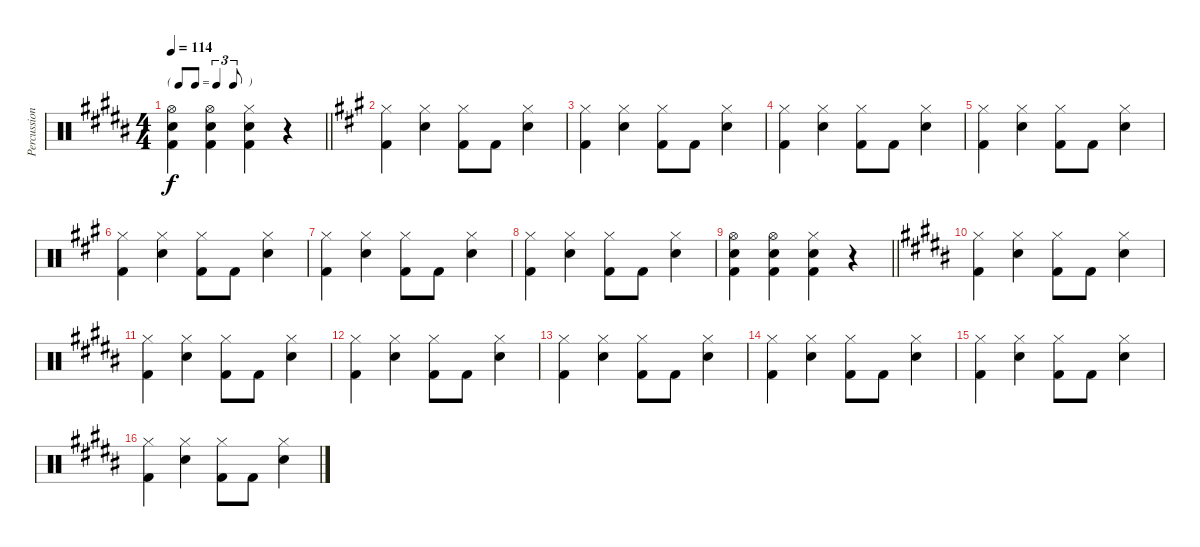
\track ("Percussion" "Percussion") {instrument percussion}
\staff {score}
\articulation defaults
\ts (4 4)
\tf triplet8th
\tempo 114
\clef neutral
\barLineRight lightlight
\ks b
("Hi-Hat (open)" "Kick (hit) 2" "Snare (hit) 2").4{dy f} ("Hi-Hat (open)" "Kick (hit) 2" "Snare (hit) 2").4 ("Hi-Hat (closed)" "Kick (hit) 2" "Snare (hit) 2").4 r.4 |
\ks a
("Hi-Hat (closed)" "Kick (hit) 2").4 ("Hi-Hat (closed)" "Snare (hit) 2").4 ("Hi-Hat (closed)" "Kick (hit) 2").8 "Kick (hit) 2".8 ("Hi-Hat (closed)" "Snare (hit) 2").4 |
("Hi-Hat (closed)" "Kick (hit) 2").4 ("Hi-Hat (closed)" "Snare (hit) 2").4 ("Hi-Hat (closed)" "Kick (hit) 2").8 "Kick (hit) 2".8 ("Hi-Hat (closed)" "Snare (hit) 2").4 |
("Hi-Hat (closed)" "Kick (hit) 2").4 ("Hi-Hat (closed)" "Snare (hit) 2").4 ("Hi-Hat (closed)" "Kick (hit) 2").8 "Kick (hit) 2".8 ("Hi-Hat (closed)" "Snare (hit) 2").4 |
("Hi-Hat (closed)" "Kick (hit) 2").4 ("Hi-Hat (closed)" "Snare (hit) 2").4 ("Hi-Hat (closed)" "Kick (hit) 2").8 "Kick (hit) 2".8 ("Hi-Hat (closed)" "Snare (hit) 2").4 |
("Hi-Hat (closed)" "Kick (hit) 2").4 ("Hi-Hat (closed)" "Snare (hit) 2").4 ("Hi-Hat (closed)" "Kick (hit) 2").8 "Kick (hit) 2".8 ("Hi-Hat (closed)" "Snare (hit) 2").4 |
("Hi-Hat (closed)" "Kick (hit) 2").4 ("Hi-Hat (closed)" "Snare (hit) 2").4 ("Hi-Hat (closed)" "Kick (hit) 2").8 "Kick (hit) 2".8 ("Hi-Hat (closed)" "Snare (hit) 2").4 |
("Hi-Hat (closed)" "Kick (hit) 2").4 ("Hi-Hat (closed)" "Snare (hit) 2").4 ("Hi-Hat (closed)" "Kick (hit) 2").8 "Kick (hit) 2".8 ("Hi-Hat (closed)" "Snare (hit) 2").4 |
\barLineRight lightlight
("Hi-Hat (open)" "Snare (hit) 2" "Kick (hit) 2").4 ("Hi-Hat (open)" "Snare (hit) 2" "Kick (hit) 2").4 ("Hi-Hat (closed)" "Snare (hit) 2" "Kick (hit) 2").4 r.4 |
\ks b
("Hi-Hat (closed)" "Kick (hit) 2").4 ("Hi-Hat (closed)" "Snare (hit) 2").4 ("Hi-Hat (closed)" "Kick (hit) 2").8 "Kick (hit) 2".8 ("Hi-Hat (closed)" "Snare (hit) 2").4 |
("Hi-Hat (closed)" "Kick (hit) 2").4 ("Hi-Hat (closed)" "Snare (hit) 2").4 ("Hi-Hat (closed)" "Kick (hit) 2").8 "Kick (hit) 2".8 ("Hi-Hat (closed)" "Snare (hit) 2").4 |
("Hi-Hat (closed)" "Kick (hit) 2").4 ("Hi-Hat (closed)" "Snare (hit) 2").4 ("Hi-Hat (closed)" "Kick (hit) 2").8 "Kick (hit) 2".8 ("Hi-Hat (closed)" "Snare (hit) 2").4 |
("Hi-Hat (closed)" "Kick (hit) 2").4 ("Hi-Hat (closed)" "Snare (hit) 2").4 ("Hi-Hat (closed)" "Kick (hit) 2").8 "Kick (hit) 2".8 ("Hi-Hat (closed)" "Snare (hit) 2").4 |
("Hi-Hat (closed)" "Kick (hit) 2").4 ("Hi-Hat (closed)" "Snare (hit) 2").4 ("Hi-Hat (closed)" "Kick (hit) 2").8 "Kick (hit) 2".8 ("Hi-Hat (closed)" "Snare (hit) 2").4 |
("Hi-Hat (closed)" "Kick (hit) 2").4 ("Hi-Hat (closed)" "Snare (hit) 2").4 ("Hi-Hat (closed)" "Kick (hit) 2").8 "Kick (hit) 2".8 ("Hi-Hat (closed)" "Snare (hit) 2").4 |
("Hi-Hat (closed)" "Kick (hit) 2").4 ("Hi-Hat (closed)" "Snare (hit) 2").4 ("Hi-Hat (closed)" "Kick (hit) 2").8 "Kick (hit) 2".8 ("Hi-Hat (closed)" "Snare (hit) 2").4
